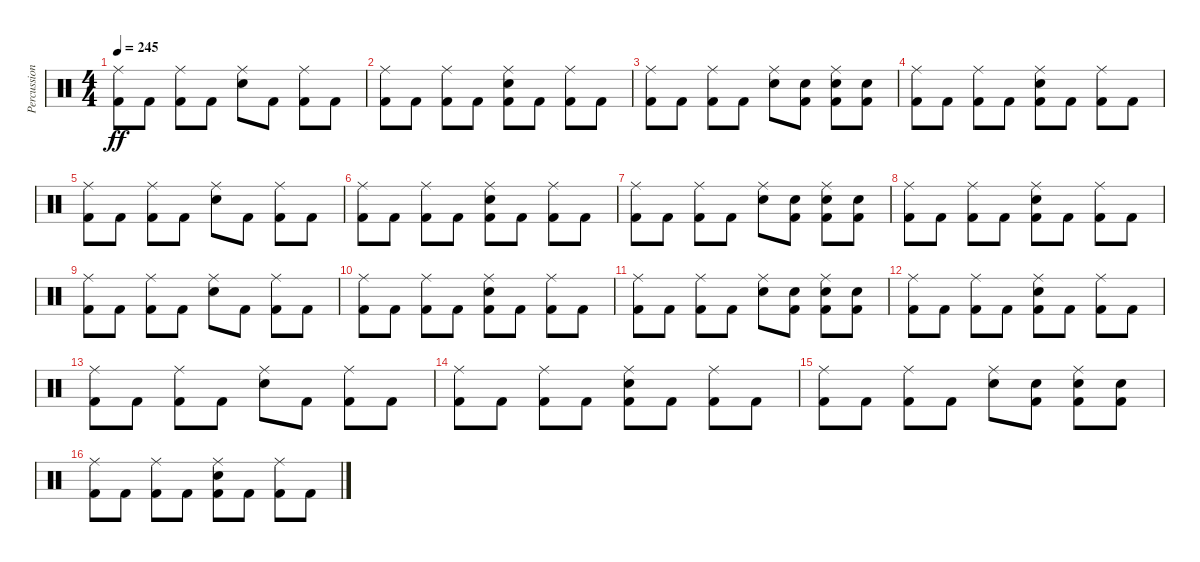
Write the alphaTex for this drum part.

\track ("Percussion" "Percussion") {instrument percussion}
\staff {score}
\articulation defaults
\ts (4 4)
\tempo 245
\clef neutral
\ks c
("Ride (middle)" "Kick (hit) 2").8{dy ff} "Kick (hit) 2".8 ("Ride (middle)" "Kick (hit) 2").8 "Kick (hit) 2".8 ("Ride (middle)" "Electric Snare (hit)").8 "Kick (hit) 2".8 ("Ride (middle)" "Kick (hit) 2").8 "Kick (hit) 2".8 |
("Ride (middle)" "Kick (hit) 2").8 "Kick (hit) 2".8 ("Ride (middle)" "Kick (hit) 2").8 "Kick (hit) 2".8 ("Ride (middle)" "Electric Snare (hit)" "Kick (hit) 2").8 "Kick (hit) 2".8 ("Ride (middle)" "Kick (hit) 2").8 "Kick (hit) 2".8 |
("Ride (middle)" "Kick (hit) 2").8 "Kick (hit) 2".8 ("Ride (middle)" "Kick (hit) 2").8 "Kick (hit) 2".8 ("Ride (middle)" "Electric Snare (hit)").8 ("Electric Snare (hit)" "Kick (hit) 2").8 ("Ride (middle)" "Electric Snare (hit)" "Kick (hit) 2").8 ("Electric Snare (hit)" "Kick (hit) 2").8 |
("Ride (middle)" "Kick (hit) 2").8 "Kick (hit) 2".8 ("Ride (middle)" "Kick (hit) 2").8 "Kick (hit) 2".8 ("Ride (middle)" "Electric Snare (hit)" "Kick (hit) 2").8 "Kick (hit) 2".8 ("Ride (middle)" "Kick (hit) 2").8 "Kick (hit) 2".8 |
("Ride (middle)" "Kick (hit) 2").8 "Kick (hit) 2".8 ("Ride (middle)" "Kick (hit) 2").8 "Kick (hit) 2".8 ("Ride (middle)" "Electric Snare (hit)").8 "Kick (hit) 2".8 ("Ride (middle)" "Kick (hit) 2").8 "Kick (hit) 2".8 |
("Ride (middle)" "Kick (hit) 2").8 "Kick (hit) 2".8 ("Ride (middle)" "Kick (hit) 2").8 "Kick (hit) 2".8 ("Ride (middle)" "Electric Snare (hit)" "Kick (hit) 2").8 "Kick (hit) 2".8 ("Ride (middle)" "Kick (hit) 2").8 "Kick (hit) 2".8 |
("Ride (middle)" "Kick (hit) 2").8 "Kick (hit) 2".8 ("Ride (middle)" "Kick (hit) 2").8 "Kick (hit) 2".8 ("Ride (middle)" "Electric Snare (hit)").8 ("Electric Snare (hit)" "Kick (hit) 2").8 ("Ride (middle)" "Electric Snare (hit)" "Kick (hit) 2").8 ("Electric Snare (hit)" "Kick (hit) 2").8 |
("Ride (middle)" "Kick (hit) 2").8 "Kick (hit) 2".8 ("Ride (middle)" "Kick (hit) 2").8 "Kick (hit) 2".8 ("Ride (middle)" "Electric Snare (hit)" "Kick (hit) 2").8 "Kick (hit) 2".8 ("Ride (middle)" "Kick (hit) 2").8 "Kick (hit) 2".8 |
("Ride (middle)" "Kick (hit) 2").8 "Kick (hit) 2".8 ("Ride (middle)" "Kick (hit) 2").8 "Kick (hit) 2".8 ("Ride (middle)" "Electric Snare (hit)").8 "Kick (hit) 2".8 ("Ride (middle)" "Kick (hit) 2").8 "Kick (hit) 2".8 |
("Ride (middle)" "Kick (hit) 2").8 "Kick (hit) 2".8 ("Ride (middle)" "Kick (hit) 2").8 "Kick (hit) 2".8 ("Ride (middle)" "Electric Snare (hit)" "Kick (hit) 2").8 "Kick (hit) 2".8 ("Ride (middle)" "Kick (hit) 2").8 "Kick (hit) 2".8 |
("Ride (middle)" "Kick (hit) 2").8 "Kick (hit) 2".8 ("Ride (middle)" "Kick (hit) 2").8 "Kick (hit) 2".8 ("Ride (middle)" "Electric Snare (hit)").8 ("Electric Snare (hit)" "Kick (hit) 2").8 ("Ride (middle)" "Electric Snare (hit)" "Kick (hit) 2").8 ("Electric Snare (hit)" "Kick (hit) 2").8 |
("Ride (middle)" "Kick (hit) 2").8 "Kick (hit) 2".8 ("Ride (middle)" "Kick (hit) 2").8 "Kick (hit) 2".8 ("Ride (middle)" "Electric Snare (hit)" "Kick (hit) 2").8 "Kick (hit) 2".8 ("Ride (middle)" "Kick (hit) 2").8 "Kick (hit) 2".8 |
("Ride (middle)" "Kick (hit) 2").8 "Kick (hit) 2".8 ("Ride (middle)" "Kick (hit) 2").8 "Kick (hit) 2".8 ("Ride (middle)" "Electric Snare (hit)").8 "Kick (hit) 2".8 ("Ride (middle)" "Kick (hit) 2").8 "Kick (hit) 2".8 |
("Ride (middle)" "Kick (hit) 2").8 "Kick (hit) 2".8 ("Ride (middle)" "Kick (hit) 2").8 "Kick (hit) 2".8 ("Ride (middle)" "Electric Snare (hit)" "Kick (hit) 2").8 "Kick (hit) 2".8 ("Ride (middle)" "Kick (hit) 2").8 "Kick (hit) 2".8 |
("Ride (middle)" "Kick (hit) 2").8 "Kick (hit) 2".8 ("Ride (middle)" "Kick (hit) 2").8 "Kick (hit) 2".8 ("Ride (middle)" "Electric Snare (hit)").8 ("Electric Snare (hit)" "Kick (hit) 2").8 ("Ride (middle)" "Electric Snare (hit)" "Kick (hit) 2").8 ("Electric Snare (hit)" "Kick (hit) 2").8 |
("Ride (middle)" "Kick (hit) 2").8 "Kick (hit) 2".8 ("Ride (middle)" "Kick (hit) 2").8 "Kick (hit) 2".8 ("Ride (middle)" "Electric Snare (hit)" "Kick (hit) 2").8 "Kick (hit) 2".8 ("Ride (middle)" "Kick (hit) 2").8 "Kick (hit) 2".8
